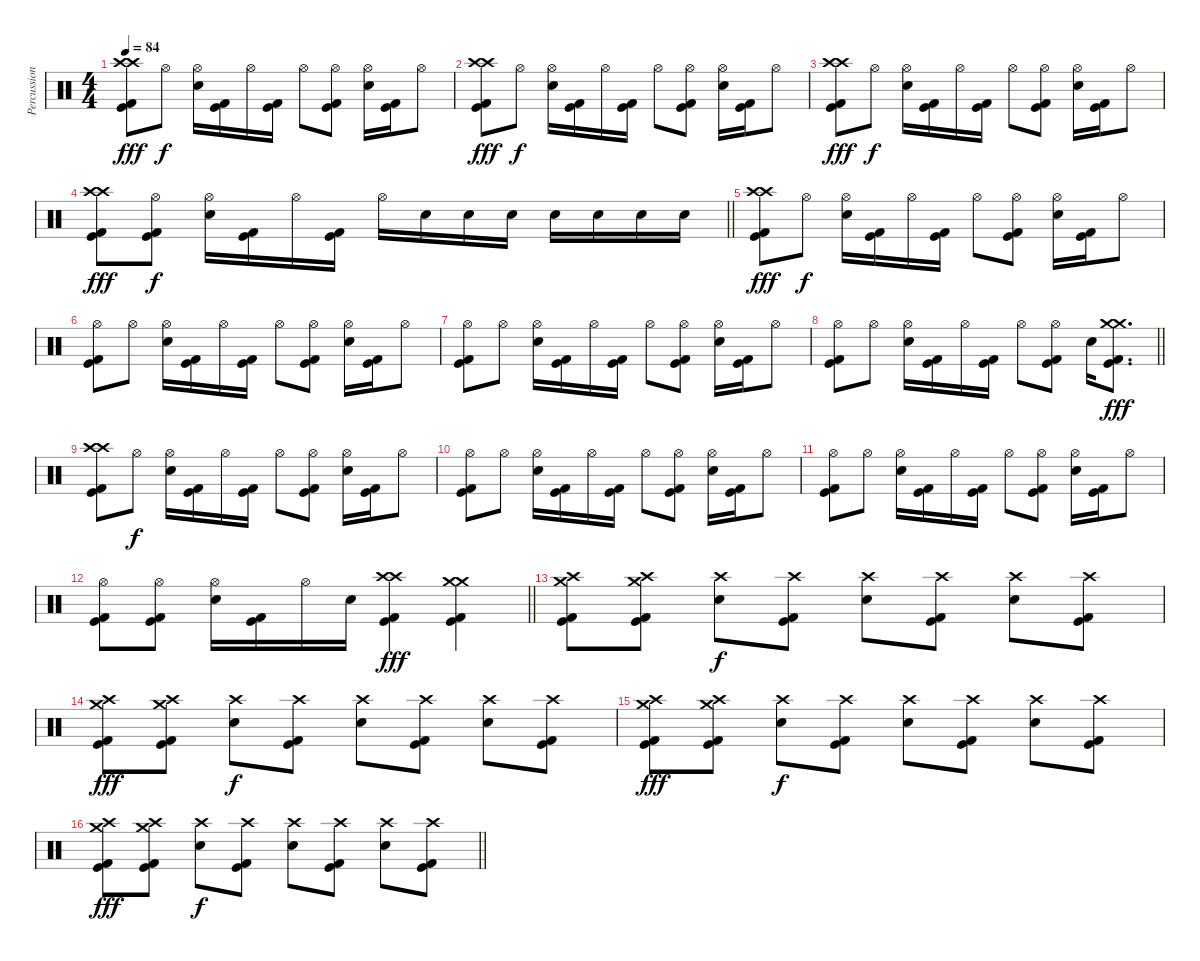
\track ("Percussion" "Percussion") {instrument percussion}
\staff {score}
\articulation defaults
\ts (4 4)
\tempo 84
\clef neutral
\ks c
("Crash high (hit)" "Crash high (hit)" "Kick (hit) 2" "Kick (hit)").8{dy fff volume 14} "Hi-Hat (open)".8{dy f} ("Hi-Hat (open)" "Snare (hit) 2").16 ("Kick (hit) 2" "Kick (hit)").16 "Hi-Hat (open)".16 ("Kick (hit) 2" "Kick (hit)").16 "Hi-Hat (open)".8 ("Hi-Hat (open)" "Kick (hit) 2" "Kick (hit)").8 ("Hi-Hat (open)" "Snare (hit) 2").16 ("Kick (hit) 2" "Kick (hit)").16 "Hi-Hat (open)".8 |
("Crash high (hit)" "Crash high (hit)" "Kick (hit) 2" "Kick (hit)").8{dy fff} "Hi-Hat (open)".8{dy f} ("Hi-Hat (open)" "Snare (hit) 2").16 ("Kick (hit) 2" "Kick (hit)").16 "Hi-Hat (open)".16 ("Kick (hit) 2" "Kick (hit)").16 "Hi-Hat (open)".8 ("Hi-Hat (open)" "Kick (hit) 2" "Kick (hit)").8 ("Hi-Hat (open)" "Snare (hit) 2").16 ("Kick (hit) 2" "Kick (hit)").16 "Hi-Hat (open)".8 |
("Crash high (hit)" "Crash high (hit)" "Kick (hit) 2" "Kick (hit)").8{dy fff} "Hi-Hat (open)".8{dy f} ("Hi-Hat (open)" "Snare (hit) 2").16 ("Kick (hit) 2" "Kick (hit)").16 "Hi-Hat (open)".16 ("Kick (hit) 2" "Kick (hit)").16 "Hi-Hat (open)".8 ("Hi-Hat (open)" "Kick (hit) 2" "Kick (hit)").8 ("Hi-Hat (open)" "Snare (hit) 2").16 ("Kick (hit) 2" "Kick (hit)").16 "Hi-Hat (open)".8 |
\barLineRight lightlight
("Crash high (hit)" "Crash high (hit)" "Kick (hit) 2" "Kick (hit)").8{dy fff} ("Hi-Hat (open)" "Kick (hit) 2" "Kick (hit)").8{dy f} ("Hi-Hat (open)" "Snare (hit) 2").16 ("Kick (hit) 2" "Kick (hit)").16 "Hi-Hat (open)".16 ("Kick (hit) 2" "Kick (hit)").16 "Hi-Hat (open)".16 "Snare (hit) 2".16 "Snare (hit) 2".16 "Snare (hit) 2".16 "Snare (hit) 2".16 "Snare (hit) 2".16 "Snare (hit) 2".16 "Snare (hit) 2".16 |
("Crash high (hit)" "Crash high (hit)" "Kick (hit) 2" "Kick (hit)").8{dy fff} "Hi-Hat (open)".8{dy f} ("Hi-Hat (open)" "Snare (hit) 2").16 ("Kick (hit) 2" "Kick (hit)").16 "Hi-Hat (open)".16 ("Kick (hit) 2" "Kick (hit)").16 "Hi-Hat (open)".8 ("Hi-Hat (open)" "Kick (hit) 2" "Kick (hit)").8 ("Hi-Hat (open)" "Snare (hit) 2").16 ("Kick (hit) 2" "Kick (hit)").16 "Hi-Hat (open)".8 |
("Hi-Hat (open)" "Kick (hit) 2" "Kick (hit)").8 "Hi-Hat (open)".8 ("Hi-Hat (open)" "Snare (hit) 2").16 ("Kick (hit) 2" "Kick (hit)").16 "Hi-Hat (open)".16 ("Kick (hit) 2" "Kick (hit)").16 "Hi-Hat (open)".8 ("Hi-Hat (open)" "Kick (hit) 2" "Kick (hit)").8 ("Hi-Hat (open)" "Snare (hit) 2").16 ("Kick (hit) 2" "Kick (hit)").16 "Hi-Hat (open)".8 |
("Hi-Hat (open)" "Kick (hit) 2" "Kick (hit)").8 "Hi-Hat (open)".8 ("Hi-Hat (open)" "Snare (hit) 2").16 ("Kick (hit) 2" "Kick (hit)").16 "Hi-Hat (open)".16 ("Kick (hit) 2" "Kick (hit)").16 "Hi-Hat (open)".8 ("Hi-Hat (open)" "Kick (hit) 2" "Kick (hit)").8 ("Hi-Hat (open)" "Snare (hit) 2").16 ("Kick (hit) 2" "Kick (hit)").16 "Hi-Hat (open)".8 |
\barLineRight lightlight
("Hi-Hat (open)" "Kick (hit) 2" "Kick (hit)").8 "Hi-Hat (open)".8 ("Hi-Hat (open)" "Snare (hit) 2").16 ("Kick (hit) 2" "Kick (hit)").16 "Hi-Hat (open)".16 ("Kick (hit) 2" "Kick (hit)").16 "Hi-Hat (open)".8 ("Hi-Hat (open)" "Kick (hit) 2" "Kick (hit)").8 "Snare (hit) 2".16 ("Crash medium (hit)" "Crash medium (hit)" "Kick (hit) 2" "Kick (hit)").8{d dy fff} |
("Crash high (hit)" "Crash high (hit)" "Kick (hit) 2" "Kick (hit)").8 "Hi-Hat (open)".8{dy f} ("Hi-Hat (open)" "Snare (hit) 2").16 ("Kick (hit) 2" "Kick (hit)").16 "Hi-Hat (open)".16 ("Kick (hit) 2" "Kick (hit)").16 "Hi-Hat (open)".8 ("Hi-Hat (open)" "Kick (hit) 2" "Kick (hit)").8 ("Hi-Hat (open)" "Snare (hit) 2").16 ("Kick (hit) 2" "Kick (hit)").16 "Hi-Hat (open)".8 |
("Hi-Hat (open)" "Kick (hit) 2" "Kick (hit)").8 "Hi-Hat (open)".8 ("Hi-Hat (open)" "Snare (hit) 2").16 ("Kick (hit) 2" "Kick (hit)").16 "Hi-Hat (open)".16 ("Kick (hit) 2" "Kick (hit)").16 "Hi-Hat (open)".8 ("Hi-Hat (open)" "Kick (hit) 2" "Kick (hit)").8 ("Hi-Hat (open)" "Snare (hit) 2").16 ("Kick (hit) 2" "Kick (hit)").16 "Hi-Hat (open)".8 |
("Hi-Hat (open)" "Kick (hit) 2" "Kick (hit)").8 "Hi-Hat (open)".8 ("Hi-Hat (open)" "Snare (hit) 2").16 ("Kick (hit) 2" "Kick (hit)").16 "Hi-Hat (open)".16 ("Kick (hit) 2" "Kick (hit)").16 "Hi-Hat (open)".8 ("Hi-Hat (open)" "Kick (hit) 2" "Kick (hit)").8 ("Hi-Hat (open)" "Snare (hit) 2").16 ("Kick (hit) 2" "Kick (hit)").16 "Hi-Hat (open)".8 |
\barLineRight lightlight
("Hi-Hat (open)" "Kick (hit) 2" "Kick (hit)").8 ("Hi-Hat (open)" "Kick (hit) 2" "Kick (hit)").8 ("Hi-Hat (open)" "Snare (hit) 2").16 ("Kick (hit) 2" "Kick (hit)").16 "Hi-Hat (open)".16 "Snare (hit) 2".16 ("Crash high (hit)" "Crash high (hit)" "Kick (hit) 2" "Kick (hit)").4{dy fff} ("Crash medium (hit)" "Crash medium (hit)" "Kick (hit) 2" "Kick (hit)").4 |
("Crash high (hit)" "Crash medium (hit)" "Kick (hit) 2" "Kick (hit)").8 ("Crash high (hit)" "Crash medium (hit)" "Kick (hit) 2" "Kick (hit)").8 ("Crash high (hit)" "Snare (hit) 2").8{dy f} ("Crash high (hit)" "Kick (hit) 2" "Kick (hit)").8 ("Crash high (hit)" "Snare (hit) 2").8 ("Crash high (hit)" "Kick (hit) 2" "Kick (hit)").8 ("Crash high (hit)" "Snare (hit) 2").8 ("Crash high (hit)" "Kick (hit) 2" "Kick (hit)").8 |
("Crash high (hit)" "Crash medium (hit)" "Kick (hit) 2" "Kick (hit)").8{dy fff} ("Crash high (hit)" "Crash medium (hit)" "Kick (hit) 2" "Kick (hit)").8 ("Crash high (hit)" "Snare (hit) 2").8{dy f} ("Crash high (hit)" "Kick (hit) 2" "Kick (hit)").8 ("Crash high (hit)" "Snare (hit) 2").8 ("Crash high (hit)" "Kick (hit) 2" "Kick (hit)").8 ("Crash high (hit)" "Snare (hit) 2").8 ("Crash high (hit)" "Kick (hit) 2" "Kick (hit)").8 |
("Crash high (hit)" "Crash medium (hit)" "Kick (hit) 2" "Kick (hit)").8{dy fff} ("Crash high (hit)" "Crash medium (hit)" "Kick (hit) 2" "Kick (hit)").8 ("Crash high (hit)" "Snare (hit) 2").8{dy f} ("Crash high (hit)" "Kick (hit) 2" "Kick (hit)").8 ("Crash high (hit)" "Snare (hit) 2").8 ("Crash high (hit)" "Kick (hit) 2" "Kick (hit)").8 ("Crash high (hit)" "Snare (hit) 2").8 ("Crash high (hit)" "Kick (hit) 2" "Kick (hit)").8 |
\barLineRight lightlight
("Crash high (hit)" "Crash medium (hit)" "Kick (hit) 2" "Kick (hit)").8{dy fff} ("Crash high (hit)" "Crash medium (hit)" "Kick (hit) 2" "Kick (hit)").8 ("Crash high (hit)" "Snare (hit) 2").8{dy f} ("Crash high (hit)" "Kick (hit) 2" "Kick (hit)").8 ("Crash high (hit)" "Snare (hit) 2").8 ("Crash high (hit)" "Kick (hit) 2" "Kick (hit)").8 ("Crash high (hit)" "Snare (hit) 2").8 ("Crash high (hit)" "Kick (hit) 2" "Kick (hit)").8
